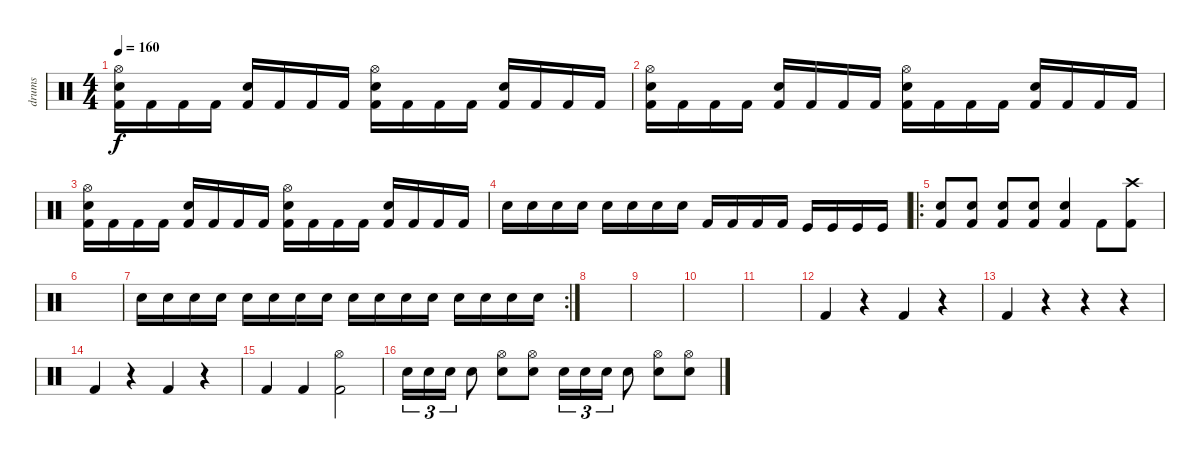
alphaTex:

\track ("drums" "drums") {instrument percussion}
\staff {score}
\articulation defaults
\ts (4 4)
\tempo 160
\clef neutral
\ks c
("Hi-Hat (open)" "Electric Snare (hit)" "Kick (hit) 2").16{dy f} "Kick (hit) 2".16 "Kick (hit) 2".16 "Kick (hit) 2".16 ("Electric Snare (hit)" "Kick (hit) 2").16 "Kick (hit) 2".16 "Kick (hit) 2".16 "Kick (hit) 2".16 ("Hi-Hat (open)" "Electric Snare (hit)" "Kick (hit) 2").16 "Kick (hit) 2".16 "Kick (hit) 2".16 "Kick (hit) 2".16 ("Electric Snare (hit)" "Kick (hit) 2").16 "Kick (hit) 2".16 "Kick (hit) 2".16 "Kick (hit) 2".16 |
("Hi-Hat (open)" "Electric Snare (hit)" "Kick (hit) 2").16 "Kick (hit) 2".16 "Kick (hit) 2".16 "Kick (hit) 2".16 ("Electric Snare (hit)" "Kick (hit) 2").16 "Kick (hit) 2".16 "Kick (hit) 2".16 "Kick (hit) 2".16 ("Hi-Hat (open)" "Electric Snare (hit)" "Kick (hit) 2").16 "Kick (hit) 2".16 "Kick (hit) 2".16 "Kick (hit) 2".16 ("Electric Snare (hit)" "Kick (hit) 2").16 "Kick (hit) 2".16 "Kick (hit) 2".16 "Kick (hit) 2".16 |
("Hi-Hat (open)" "Electric Snare (hit)" "Kick (hit) 2").16 "Kick (hit) 2".16 "Kick (hit) 2".16 "Kick (hit) 2".16 ("Electric Snare (hit)" "Kick (hit) 2").16 "Kick (hit) 2".16 "Kick (hit) 2".16 "Kick (hit) 2".16 ("Hi-Hat (open)" "Electric Snare (hit)" "Kick (hit) 2").16 "Kick (hit) 2".16 "Kick (hit) 2".16 "Kick (hit) 2".16 ("Electric Snare (hit)" "Kick (hit) 2").16 "Kick (hit) 2".16 "Kick (hit) 2".16 "Kick (hit) 2".16 |
"Electric Snare (hit)".16 "Electric Snare (hit)".16 "Electric Snare (hit)".16 "Electric Snare (hit)".16 "Snare (hit) 2".16 "Snare (hit) 2".16 "Snare (hit) 2".16 "Snare (hit) 2".16 "Kick (hit) 2".16 "Kick (hit) 2".16 "Kick (hit) 2".16 "Kick (hit) 2".16 "Kick (hit)".16 "Kick (hit)".16 "Kick (hit)".16 "Kick (hit)".16 |
\ro
("Snare (hit) 2" "Kick (hit) 2").8 ("Snare (hit) 2" "Kick (hit) 2").8 ("Snare (hit) 2" "Kick (hit) 2").8 ("Snare (hit) 2" "Kick (hit) 2").8 ("Snare (hit) 2" "Kick (hit) 2").4 "Kick (hit) 2".8 ("Crash high (hit)" "Kick (hit) 2").8 |
|
\rc 2 "Electric Snare (hit)".16{volume 9} "Electric Snare (hit)".16 "Electric Snare (hit)".16 "Electric Snare (hit)".16 "Snare (hit) 2".16 "Snare (hit) 2".16 "Snare (hit) 2".16 "Snare (hit) 2".16 "Electric Snare (hit)".16 "Electric Snare (hit)".16 "Electric Snare (hit)".16 "Electric Snare (hit)".16 "Snare (hit) 2".16 "Snare (hit) 2".16 "Snare (hit) 2".16 "Snare (hit) 2".16
|
|
|
|
|
"Kick (hit) 2".4 r.4 "Kick (hit) 2".4 r.4 |
"Kick (hit) 2".4 r.4 r.4 r.4 |
"Kick (hit) 2".4 r.4 "Kick (hit) 2".4 r.4 |
"Kick (hit) 2".4 "Kick (hit) 2".4 ("Hi-Hat (open)" "Kick (hit) 2").2 |
"Electric Snare (hit)".16{tu (3 2)} "Electric Snare (hit)".16{tu (3 2)} "Electric Snare (hit)".16{tu (3 2)} "Electric Snare (hit)".8 ("Hi-Hat (open)" "Electric Snare (hit)").8 ("Hi-Hat (open)" "Electric Snare (hit)").8 "Snare (hit) 2".16{tu (3 2)} "Snare (hit) 2".16{tu (3 2)} "Snare (hit) 2".16{tu (3 2)} "Snare (hit) 2".8 ("Hi-Hat (open)" "Electric Snare (hit)").8 ("Hi-Hat (open)" "Electric Snare (hit)").8
